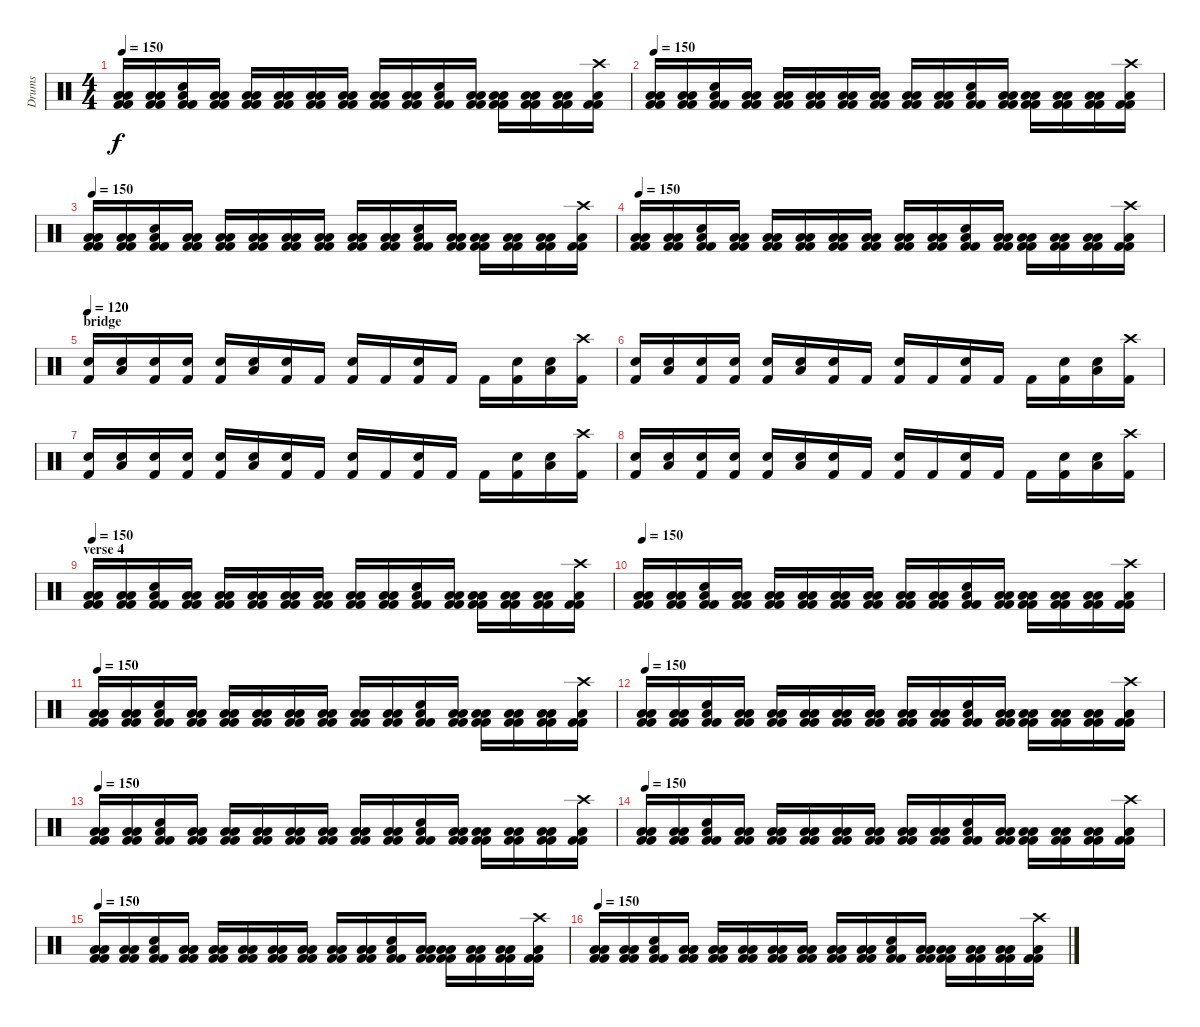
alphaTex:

\track ("Drums" "Drums") {instrument percussion}
\staff {score}
\articulation defaults
\ts (4 4)
\tempo 150
\clef neutral
\ks c
("Kick (hit) 2" "Kick (hit) 2" "Low Tom (hit)" "Low Tom (hit)").16{dy f} ("Kick (hit) 2" "Kick (hit) 2" "Low Tom (hit)" "Low Tom (hit)").16 ("Kick (hit) 2" "Kick (hit) 2" "Snare (hit) 2" "Low Tom (hit)").16 ("Kick (hit) 2" "Kick (hit) 2" "Low Tom (hit)" "Low Tom (hit)").16 ("Kick (hit) 2" "Kick (hit) 2" "Low Tom (hit)" "Low Tom (hit)").16 ("Kick (hit) 2" "Kick (hit) 2" "Low Tom (hit)" "Low Tom (hit)").16 ("Kick (hit) 2" "Kick (hit) 2" "Low Tom (hit)" "Low Tom (hit)").16 ("Kick (hit) 2" "Kick (hit) 2" "Low Tom (hit)" "Low Tom (hit)").16 ("Kick (hit) 2" "Kick (hit) 2" "Low Tom (hit)" "Low Tom (hit)").16 ("Kick (hit) 2" "Kick (hit) 2" "Low Tom (hit)" "Low Tom (hit)").16 ("Kick (hit) 2" "Kick (hit) 2" "Snare (hit) 2" "Low Tom (hit)").16 ("Kick (hit) 2" "Kick (hit) 2" "Low Tom (hit)" "Low Tom (hit)").16 ("Kick (hit) 2" "Kick (hit) 2" "Low Tom (hit)" "Low Tom (hit)").16 ("Kick (hit) 2" "Kick (hit) 2" "Low Tom (hit)" "Low Tom (hit)").16 ("Kick (hit) 2" "Kick (hit) 2" "Low Tom (hit)" "Low Tom (hit)").16 ("Kick (hit) 2" "Kick (hit) 2" "Crash high (hit)" "Low Tom (hit)").16 |
\tempo 150
("Kick (hit) 2" "Kick (hit) 2" "Low Tom (hit)" "Low Tom (hit)").16 ("Kick (hit) 2" "Kick (hit) 2" "Low Tom (hit)" "Low Tom (hit)").16 ("Kick (hit) 2" "Kick (hit) 2" "Snare (hit) 2" "Low Tom (hit)").16 ("Kick (hit) 2" "Kick (hit) 2" "Low Tom (hit)" "Low Tom (hit)").16 ("Kick (hit) 2" "Kick (hit) 2" "Low Tom (hit)" "Low Tom (hit)").16 ("Kick (hit) 2" "Kick (hit) 2" "Low Tom (hit)" "Low Tom (hit)").16 ("Kick (hit) 2" "Kick (hit) 2" "Low Tom (hit)" "Low Tom (hit)").16 ("Kick (hit) 2" "Kick (hit) 2" "Low Tom (hit)" "Low Tom (hit)").16 ("Kick (hit) 2" "Kick (hit) 2" "Low Tom (hit)" "Low Tom (hit)").16 ("Kick (hit) 2" "Kick (hit) 2" "Low Tom (hit)" "Low Tom (hit)").16 ("Kick (hit) 2" "Kick (hit) 2" "Snare (hit) 2" "Low Tom (hit)").16 ("Kick (hit) 2" "Kick (hit) 2" "Low Tom (hit)" "Low Tom (hit)").16 ("Kick (hit) 2" "Kick (hit) 2" "Low Tom (hit)" "Low Tom (hit)").16 ("Kick (hit) 2" "Kick (hit) 2" "Low Tom (hit)" "Low Tom (hit)").16 ("Kick (hit) 2" "Kick (hit) 2" "Low Tom (hit)" "Low Tom (hit)").16 ("Kick (hit) 2" "Kick (hit) 2" "Crash high (hit)" "Low Tom (hit)").16 |
\tempo 150
("Kick (hit) 2" "Kick (hit) 2" "Low Tom (hit)" "Low Tom (hit)").16 ("Kick (hit) 2" "Kick (hit) 2" "Low Tom (hit)" "Low Tom (hit)").16 ("Kick (hit) 2" "Kick (hit) 2" "Snare (hit) 2" "Low Tom (hit)").16 ("Kick (hit) 2" "Kick (hit) 2" "Low Tom (hit)" "Low Tom (hit)").16 ("Kick (hit) 2" "Kick (hit) 2" "Low Tom (hit)" "Low Tom (hit)").16 ("Kick (hit) 2" "Kick (hit) 2" "Low Tom (hit)" "Low Tom (hit)").16 ("Kick (hit) 2" "Kick (hit) 2" "Low Tom (hit)" "Low Tom (hit)").16 ("Kick (hit) 2" "Kick (hit) 2" "Low Tom (hit)" "Low Tom (hit)").16 ("Kick (hit) 2" "Kick (hit) 2" "Low Tom (hit)" "Low Tom (hit)").16 ("Kick (hit) 2" "Kick (hit) 2" "Low Tom (hit)" "Low Tom (hit)").16 ("Kick (hit) 2" "Kick (hit) 2" "Snare (hit) 2" "Low Tom (hit)").16 ("Kick (hit) 2" "Kick (hit) 2" "Low Tom (hit)" "Low Tom (hit)").16 ("Kick (hit) 2" "Kick (hit) 2" "Low Tom (hit)" "Low Tom (hit)").16 ("Kick (hit) 2" "Kick (hit) 2" "Low Tom (hit)" "Low Tom (hit)").16 ("Kick (hit) 2" "Kick (hit) 2" "Low Tom (hit)" "Low Tom (hit)").16 ("Kick (hit) 2" "Kick (hit) 2" "Crash high (hit)" "Low Tom (hit)").16 |
\tempo 150
("Kick (hit) 2" "Kick (hit) 2" "Low Tom (hit)" "Low Tom (hit)").16 ("Kick (hit) 2" "Kick (hit) 2" "Low Tom (hit)" "Low Tom (hit)").16 ("Kick (hit) 2" "Kick (hit) 2" "Snare (hit) 2" "Low Tom (hit)").16 ("Kick (hit) 2" "Kick (hit) 2" "Low Tom (hit)" "Low Tom (hit)").16 ("Kick (hit) 2" "Kick (hit) 2" "Low Tom (hit)" "Low Tom (hit)").16 ("Kick (hit) 2" "Kick (hit) 2" "Low Tom (hit)" "Low Tom (hit)").16 ("Kick (hit) 2" "Kick (hit) 2" "Low Tom (hit)" "Low Tom (hit)").16 ("Kick (hit) 2" "Kick (hit) 2" "Low Tom (hit)" "Low Tom (hit)").16 ("Kick (hit) 2" "Kick (hit) 2" "Low Tom (hit)" "Low Tom (hit)").16 ("Kick (hit) 2" "Kick (hit) 2" "Low Tom (hit)" "Low Tom (hit)").16 ("Kick (hit) 2" "Kick (hit) 2" "Snare (hit) 2" "Low Tom (hit)").16 ("Kick (hit) 2" "Kick (hit) 2" "Low Tom (hit)" "Low Tom (hit)").16 ("Kick (hit) 2" "Kick (hit) 2" "Low Tom (hit)" "Low Tom (hit)").16 ("Kick (hit) 2" "Kick (hit) 2" "Low Tom (hit)" "Low Tom (hit)").16 ("Kick (hit) 2" "Kick (hit) 2" "Low Tom (hit)" "Low Tom (hit)").16 ("Kick (hit) 2" "Kick (hit) 2" "Crash high (hit)" "Low Tom (hit)").16 |
\section ("" "bridge")
\tempo 120
("Snare (hit) 2" "Kick (hit) 2").16 ("Snare (hit) 2" "Low Tom (hit)").16 ("Snare (hit) 2" "Kick (hit) 2").16 ("Snare (hit) 2" "Kick (hit) 2").16 ("Snare (hit) 2" "Kick (hit) 2").16 ("Snare (hit) 2" "Low Tom (hit)").16 ("Snare (hit) 2" "Kick (hit) 2").16 "Kick (hit) 2".16 ("Kick (hit) 2" "Snare (hit) 2").16 "Kick (hit) 2".16 ("Kick (hit) 2" "Snare (hit) 2").16 "Kick (hit) 2".16 "Kick (hit) 2".16 ("Kick (hit) 2" "Snare (hit) 2").16 ("Snare (hit) 2" "Low Tom (hit)").16 ("Kick (hit) 2" "Crash high (hit)").16 |
("Snare (hit) 2" "Kick (hit) 2").16 ("Snare (hit) 2" "Low Tom (hit)").16 ("Snare (hit) 2" "Kick (hit) 2").16 ("Snare (hit) 2" "Kick (hit) 2").16 ("Snare (hit) 2" "Kick (hit) 2").16 ("Snare (hit) 2" "Low Tom (hit)").16 ("Snare (hit) 2" "Kick (hit) 2").16 "Kick (hit) 2".16 ("Kick (hit) 2" "Snare (hit) 2").16 "Kick (hit) 2".16 ("Kick (hit) 2" "Snare (hit) 2").16 "Kick (hit) 2".16 "Kick (hit) 2".16 ("Kick (hit) 2" "Snare (hit) 2").16 ("Snare (hit) 2" "Low Tom (hit)").16 ("Kick (hit) 2" "Crash high (hit)").16 |
("Snare (hit) 2" "Kick (hit) 2").16 ("Snare (hit) 2" "Low Tom (hit)").16 ("Snare (hit) 2" "Kick (hit) 2").16 ("Snare (hit) 2" "Kick (hit) 2").16 ("Snare (hit) 2" "Kick (hit) 2").16 ("Snare (hit) 2" "Low Tom (hit)").16 ("Snare (hit) 2" "Kick (hit) 2").16 "Kick (hit) 2".16 ("Kick (hit) 2" "Snare (hit) 2").16 "Kick (hit) 2".16 ("Kick (hit) 2" "Snare (hit) 2").16 "Kick (hit) 2".16 "Kick (hit) 2".16 ("Kick (hit) 2" "Snare (hit) 2").16 ("Snare (hit) 2" "Low Tom (hit)").16 ("Kick (hit) 2" "Crash high (hit)").16 |
("Snare (hit) 2" "Kick (hit) 2").16 ("Snare (hit) 2" "Low Tom (hit)").16 ("Snare (hit) 2" "Kick (hit) 2").16 ("Snare (hit) 2" "Kick (hit) 2").16 ("Snare (hit) 2" "Kick (hit) 2").16 ("Snare (hit) 2" "Low Tom (hit)").16 ("Snare (hit) 2" "Kick (hit) 2").16 "Kick (hit) 2".16 ("Kick (hit) 2" "Snare (hit) 2").16 "Kick (hit) 2".16 ("Kick (hit) 2" "Snare (hit) 2").16 "Kick (hit) 2".16 "Kick (hit) 2".16 ("Kick (hit) 2" "Snare (hit) 2").16 ("Snare (hit) 2" "Low Tom (hit)").16 ("Kick (hit) 2" "Crash high (hit)").16 |
\section ("" "verse 4")
\tempo 150
("Kick (hit) 2" "Kick (hit) 2" "Low Tom (hit)" "Low Tom (hit)").16 ("Kick (hit) 2" "Kick (hit) 2" "Low Tom (hit)" "Low Tom (hit)").16 ("Kick (hit) 2" "Kick (hit) 2" "Snare (hit) 2" "Low Tom (hit)").16 ("Kick (hit) 2" "Kick (hit) 2" "Low Tom (hit)" "Low Tom (hit)").16 ("Kick (hit) 2" "Kick (hit) 2" "Low Tom (hit)" "Low Tom (hit)").16 ("Kick (hit) 2" "Kick (hit) 2" "Low Tom (hit)" "Low Tom (hit)").16 ("Kick (hit) 2" "Kick (hit) 2" "Low Tom (hit)" "Low Tom (hit)").16 ("Kick (hit) 2" "Kick (hit) 2" "Low Tom (hit)" "Low Tom (hit)").16 ("Kick (hit) 2" "Kick (hit) 2" "Low Tom (hit)" "Low Tom (hit)").16 ("Kick (hit) 2" "Kick (hit) 2" "Low Tom (hit)" "Low Tom (hit)").16 ("Kick (hit) 2" "Kick (hit) 2" "Snare (hit) 2" "Low Tom (hit)").16 ("Kick (hit) 2" "Kick (hit) 2" "Low Tom (hit)" "Low Tom (hit)").16 ("Kick (hit) 2" "Kick (hit) 2" "Low Tom (hit)" "Low Tom (hit)").16 ("Kick (hit) 2" "Kick (hit) 2" "Low Tom (hit)" "Low Tom (hit)").16 ("Kick (hit) 2" "Kick (hit) 2" "Low Tom (hit)" "Low Tom (hit)").16 ("Kick (hit) 2" "Kick (hit) 2" "Crash high (hit)" "Low Tom (hit)").16 |
\tempo 150
("Kick (hit) 2" "Kick (hit) 2" "Low Tom (hit)" "Low Tom (hit)").16 ("Kick (hit) 2" "Kick (hit) 2" "Low Tom (hit)" "Low Tom (hit)").16 ("Kick (hit) 2" "Kick (hit) 2" "Snare (hit) 2" "Low Tom (hit)").16 ("Kick (hit) 2" "Kick (hit) 2" "Low Tom (hit)" "Low Tom (hit)").16 ("Kick (hit) 2" "Kick (hit) 2" "Low Tom (hit)" "Low Tom (hit)").16 ("Kick (hit) 2" "Kick (hit) 2" "Low Tom (hit)" "Low Tom (hit)").16 ("Kick (hit) 2" "Kick (hit) 2" "Low Tom (hit)" "Low Tom (hit)").16 ("Kick (hit) 2" "Kick (hit) 2" "Low Tom (hit)" "Low Tom (hit)").16 ("Kick (hit) 2" "Kick (hit) 2" "Low Tom (hit)" "Low Tom (hit)").16 ("Kick (hit) 2" "Kick (hit) 2" "Low Tom (hit)" "Low Tom (hit)").16 ("Kick (hit) 2" "Kick (hit) 2" "Snare (hit) 2" "Low Tom (hit)").16 ("Kick (hit) 2" "Kick (hit) 2" "Low Tom (hit)" "Low Tom (hit)").16 ("Kick (hit) 2" "Kick (hit) 2" "Low Tom (hit)" "Low Tom (hit)").16 ("Kick (hit) 2" "Kick (hit) 2" "Low Tom (hit)" "Low Tom (hit)").16 ("Kick (hit) 2" "Kick (hit) 2" "Low Tom (hit)" "Low Tom (hit)").16 ("Kick (hit) 2" "Kick (hit) 2" "Crash high (hit)" "Low Tom (hit)").16 |
\tempo 150
("Kick (hit) 2" "Kick (hit) 2" "Low Tom (hit)" "Low Tom (hit)").16 ("Kick (hit) 2" "Kick (hit) 2" "Low Tom (hit)" "Low Tom (hit)").16 ("Kick (hit) 2" "Kick (hit) 2" "Snare (hit) 2" "Low Tom (hit)").16 ("Kick (hit) 2" "Kick (hit) 2" "Low Tom (hit)" "Low Tom (hit)").16 ("Kick (hit) 2" "Kick (hit) 2" "Low Tom (hit)" "Low Tom (hit)").16 ("Kick (hit) 2" "Kick (hit) 2" "Low Tom (hit)" "Low Tom (hit)").16 ("Kick (hit) 2" "Kick (hit) 2" "Low Tom (hit)" "Low Tom (hit)").16 ("Kick (hit) 2" "Kick (hit) 2" "Low Tom (hit)" "Low Tom (hit)").16 ("Kick (hit) 2" "Kick (hit) 2" "Low Tom (hit)" "Low Tom (hit)").16 ("Kick (hit) 2" "Kick (hit) 2" "Low Tom (hit)" "Low Tom (hit)").16 ("Kick (hit) 2" "Kick (hit) 2" "Snare (hit) 2" "Low Tom (hit)").16 ("Kick (hit) 2" "Kick (hit) 2" "Low Tom (hit)" "Low Tom (hit)").16 ("Kick (hit) 2" "Kick (hit) 2" "Low Tom (hit)" "Low Tom (hit)").16 ("Kick (hit) 2" "Kick (hit) 2" "Low Tom (hit)" "Low Tom (hit)").16 ("Kick (hit) 2" "Kick (hit) 2" "Low Tom (hit)" "Low Tom (hit)").16 ("Kick (hit) 2" "Kick (hit) 2" "Crash high (hit)" "Low Tom (hit)").16 |
\tempo 150
("Kick (hit) 2" "Kick (hit) 2" "Low Tom (hit)" "Low Tom (hit)").16 ("Kick (hit) 2" "Kick (hit) 2" "Low Tom (hit)" "Low Tom (hit)").16 ("Kick (hit) 2" "Kick (hit) 2" "Snare (hit) 2" "Low Tom (hit)").16 ("Kick (hit) 2" "Kick (hit) 2" "Low Tom (hit)" "Low Tom (hit)").16 ("Kick (hit) 2" "Kick (hit) 2" "Low Tom (hit)" "Low Tom (hit)").16 ("Kick (hit) 2" "Kick (hit) 2" "Low Tom (hit)" "Low Tom (hit)").16 ("Kick (hit) 2" "Kick (hit) 2" "Low Tom (hit)" "Low Tom (hit)").16 ("Kick (hit) 2" "Kick (hit) 2" "Low Tom (hit)" "Low Tom (hit)").16 ("Kick (hit) 2" "Kick (hit) 2" "Low Tom (hit)" "Low Tom (hit)").16 ("Kick (hit) 2" "Kick (hit) 2" "Low Tom (hit)" "Low Tom (hit)").16 ("Kick (hit) 2" "Kick (hit) 2" "Snare (hit) 2" "Low Tom (hit)").16 ("Kick (hit) 2" "Kick (hit) 2" "Low Tom (hit)" "Low Tom (hit)").16 ("Kick (hit) 2" "Kick (hit) 2" "Low Tom (hit)" "Low Tom (hit)").16 ("Kick (hit) 2" "Kick (hit) 2" "Low Tom (hit)" "Low Tom (hit)").16 ("Kick (hit) 2" "Kick (hit) 2" "Low Tom (hit)" "Low Tom (hit)").16 ("Kick (hit) 2" "Kick (hit) 2" "Crash high (hit)" "Low Tom (hit)").16 |
\tempo 150
("Kick (hit) 2" "Kick (hit) 2" "Low Tom (hit)" "Low Tom (hit)").16 ("Kick (hit) 2" "Kick (hit) 2" "Low Tom (hit)" "Low Tom (hit)").16 ("Kick (hit) 2" "Kick (hit) 2" "Snare (hit) 2" "Low Tom (hit)").16 ("Kick (hit) 2" "Kick (hit) 2" "Low Tom (hit)" "Low Tom (hit)").16 ("Kick (hit) 2" "Kick (hit) 2" "Low Tom (hit)" "Low Tom (hit)").16 ("Kick (hit) 2" "Kick (hit) 2" "Low Tom (hit)" "Low Tom (hit)").16 ("Kick (hit) 2" "Kick (hit) 2" "Low Tom (hit)" "Low Tom (hit)").16 ("Kick (hit) 2" "Kick (hit) 2" "Low Tom (hit)" "Low Tom (hit)").16 ("Kick (hit) 2" "Kick (hit) 2" "Low Tom (hit)" "Low Tom (hit)").16 ("Kick (hit) 2" "Kick (hit) 2" "Low Tom (hit)" "Low Tom (hit)").16 ("Kick (hit) 2" "Kick (hit) 2" "Snare (hit) 2" "Low Tom (hit)").16 ("Kick (hit) 2" "Kick (hit) 2" "Low Tom (hit)" "Low Tom (hit)").16 ("Kick (hit) 2" "Kick (hit) 2" "Low Tom (hit)" "Low Tom (hit)").16 ("Kick (hit) 2" "Kick (hit) 2" "Low Tom (hit)" "Low Tom (hit)").16 ("Kick (hit) 2" "Kick (hit) 2" "Low Tom (hit)" "Low Tom (hit)").16 ("Kick (hit) 2" "Kick (hit) 2" "Crash high (hit)" "Low Tom (hit)").16 |
\tempo 150
("Kick (hit) 2" "Kick (hit) 2" "Low Tom (hit)" "Low Tom (hit)").16 ("Kick (hit) 2" "Kick (hit) 2" "Low Tom (hit)" "Low Tom (hit)").16 ("Kick (hit) 2" "Kick (hit) 2" "Snare (hit) 2" "Low Tom (hit)").16 ("Kick (hit) 2" "Kick (hit) 2" "Low Tom (hit)" "Low Tom (hit)").16 ("Kick (hit) 2" "Kick (hit) 2" "Low Tom (hit)" "Low Tom (hit)").16 ("Kick (hit) 2" "Kick (hit) 2" "Low Tom (hit)" "Low Tom (hit)").16 ("Kick (hit) 2" "Kick (hit) 2" "Low Tom (hit)" "Low Tom (hit)").16 ("Kick (hit) 2" "Kick (hit) 2" "Low Tom (hit)" "Low Tom (hit)").16 ("Kick (hit) 2" "Kick (hit) 2" "Low Tom (hit)" "Low Tom (hit)").16 ("Kick (hit) 2" "Kick (hit) 2" "Low Tom (hit)" "Low Tom (hit)").16 ("Kick (hit) 2" "Kick (hit) 2" "Snare (hit) 2" "Low Tom (hit)").16 ("Kick (hit) 2" "Kick (hit) 2" "Low Tom (hit)" "Low Tom (hit)").16 ("Kick (hit) 2" "Kick (hit) 2" "Low Tom (hit)" "Low Tom (hit)").16 ("Kick (hit) 2" "Kick (hit) 2" "Low Tom (hit)" "Low Tom (hit)").16 ("Kick (hit) 2" "Kick (hit) 2" "Low Tom (hit)" "Low Tom (hit)").16 ("Kick (hit) 2" "Kick (hit) 2" "Crash high (hit)" "Low Tom (hit)").16 |
\tempo 150
("Kick (hit) 2" "Kick (hit) 2" "Low Tom (hit)" "Low Tom (hit)").16 ("Kick (hit) 2" "Kick (hit) 2" "Low Tom (hit)" "Low Tom (hit)").16 ("Kick (hit) 2" "Kick (hit) 2" "Snare (hit) 2" "Low Tom (hit)").16 ("Kick (hit) 2" "Kick (hit) 2" "Low Tom (hit)" "Low Tom (hit)").16 ("Kick (hit) 2" "Kick (hit) 2" "Low Tom (hit)" "Low Tom (hit)").16 ("Kick (hit) 2" "Kick (hit) 2" "Low Tom (hit)" "Low Tom (hit)").16 ("Kick (hit) 2" "Kick (hit) 2" "Low Tom (hit)" "Low Tom (hit)").16 ("Kick (hit) 2" "Kick (hit) 2" "Low Tom (hit)" "Low Tom (hit)").16 ("Kick (hit) 2" "Kick (hit) 2" "Low Tom (hit)" "Low Tom (hit)").16 ("Kick (hit) 2" "Kick (hit) 2" "Low Tom (hit)" "Low Tom (hit)").16 ("Kick (hit) 2" "Kick (hit) 2" "Snare (hit) 2" "Low Tom (hit)").16 ("Kick (hit) 2" "Kick (hit) 2" "Low Tom (hit)" "Low Tom (hit)").16 ("Kick (hit) 2" "Kick (hit) 2" "Low Tom (hit)" "Low Tom (hit)").16 ("Kick (hit) 2" "Kick (hit) 2" "Low Tom (hit)" "Low Tom (hit)").16 ("Kick (hit) 2" "Kick (hit) 2" "Low Tom (hit)" "Low Tom (hit)").16 ("Kick (hit) 2" "Kick (hit) 2" "Crash high (hit)" "Low Tom (hit)").16 |
\tempo 150
("Kick (hit) 2" "Kick (hit) 2" "Low Tom (hit)" "Low Tom (hit)").16 ("Kick (hit) 2" "Kick (hit) 2" "Low Tom (hit)" "Low Tom (hit)").16 ("Kick (hit) 2" "Kick (hit) 2" "Snare (hit) 2" "Low Tom (hit)").16 ("Kick (hit) 2" "Kick (hit) 2" "Low Tom (hit)" "Low Tom (hit)").16 ("Kick (hit) 2" "Kick (hit) 2" "Low Tom (hit)" "Low Tom (hit)").16 ("Kick (hit) 2" "Kick (hit) 2" "Low Tom (hit)" "Low Tom (hit)").16 ("Kick (hit) 2" "Kick (hit) 2" "Low Tom (hit)" "Low Tom (hit)").16 ("Kick (hit) 2" "Kick (hit) 2" "Low Tom (hit)" "Low Tom (hit)").16 ("Kick (hit) 2" "Kick (hit) 2" "Low Tom (hit)" "Low Tom (hit)").16 ("Kick (hit) 2" "Kick (hit) 2" "Low Tom (hit)" "Low Tom (hit)").16 ("Kick (hit) 2" "Kick (hit) 2" "Snare (hit) 2" "Low Tom (hit)").16 ("Kick (hit) 2" "Kick (hit) 2" "Low Tom (hit)" "Low Tom (hit)").16 ("Kick (hit) 2" "Kick (hit) 2" "Low Tom (hit)" "Low Tom (hit)").16 ("Kick (hit) 2" "Kick (hit) 2" "Low Tom (hit)" "Low Tom (hit)").16 ("Kick (hit) 2" "Kick (hit) 2" "Low Tom (hit)" "Low Tom (hit)").16 ("Kick (hit) 2" "Kick (hit) 2" "Crash high (hit)" "Low Tom (hit)").16
